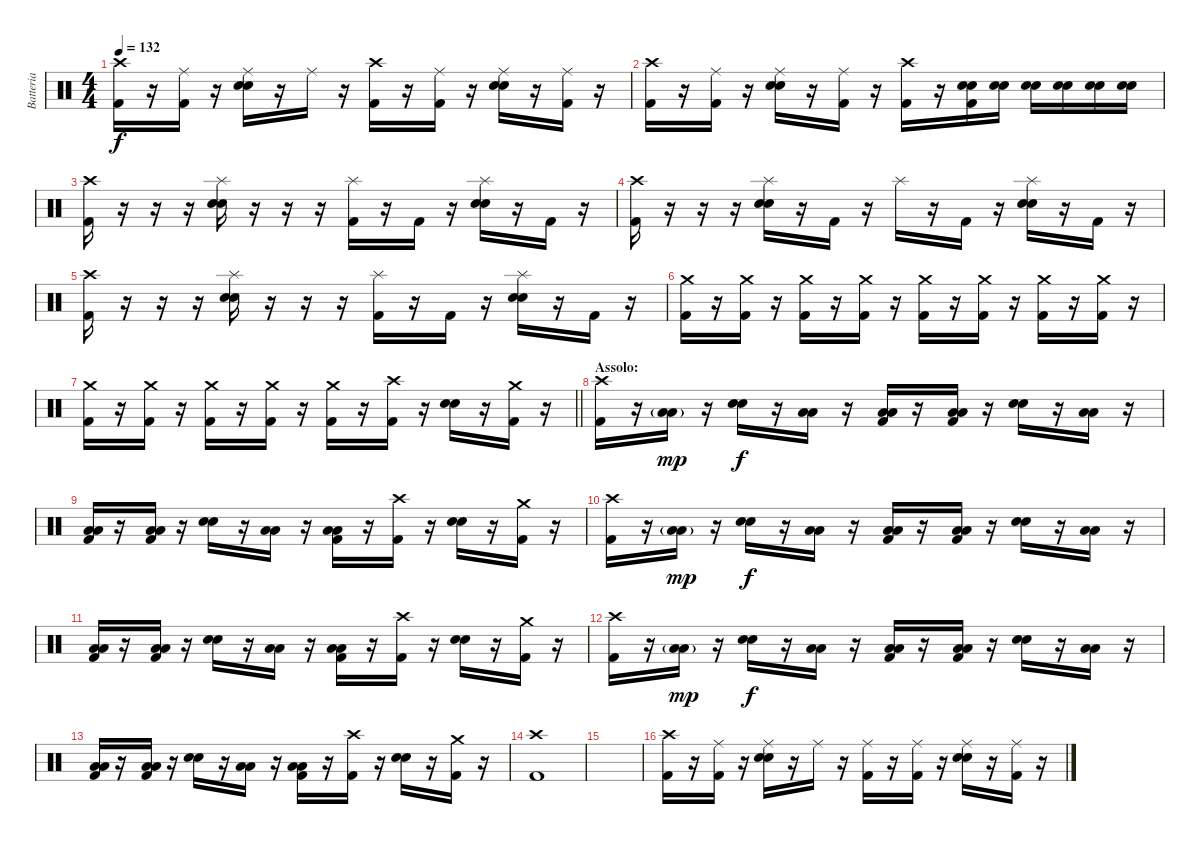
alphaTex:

\track ("Batteria" "Batteria") {instrument percussion}
\staff {score}
\articulation defaults
\ts (4 4)
\tempo 132
\clef neutral
\ks c
("Kick (hit) 2" "Crash high (hit)").16{dy f} r.16 ("Kick (hit) 2" "Ride (middle)").16 r.16 ("Snare (hit) 2" "Snare (hit) 2" "Ride (middle)").16 r.16 "Ride (middle)".16 r.16 ("Kick (hit) 2" "Crash high (hit)").16 r.16 ("Kick (hit) 2" "Ride (middle)").16 r.16 ("Snare (hit) 2" "Snare (hit) 2" "Ride (middle)").16 r.16 ("Kick (hit) 2" "Ride (middle)").16 r.16 |
("Kick (hit) 2" "Crash high (hit)").16 r.16 ("Kick (hit) 2" "Ride (middle)").16 r.16 ("Snare (hit) 2" "Snare (hit) 2" "Ride (middle)").16 r.16 ("Kick (hit) 2" "Ride (middle)").16 r.16 ("Kick (hit) 2" "Crash high (hit)").16 r.16 ("Kick (hit) 2" "Snare (hit) 2" "Snare (hit) 2").16 ("Snare (hit) 2" "Snare (hit) 2").16 ("Snare (hit) 2" "Snare (hit) 2").16 ("Snare (hit) 2" "Snare (hit) 2").16 ("Snare (hit) 2" "Snare (hit) 2").16 ("Snare (hit) 2" "Snare (hit) 2").16 |
("Kick (hit) 2" "Crash high (hit)").16 r.16 r.16 r.16 ("Snare (hit) 2" "Snare (hit) 2" "Splash (hit)").16 r.16 r.16 r.16 ("Kick (hit) 2" "Splash (hit)").16 r.16 "Kick (hit) 2".16 r.16 ("Snare (hit) 2" "Snare (hit) 2" "Splash (hit)").16 r.16 "Kick (hit) 2".16 r.16 |
("Kick (hit) 2" "Crash high (hit)").16 r.16 r.16 r.16 ("Snare (hit) 2" "Snare (hit) 2" "Splash (hit)").16 r.16 "Kick (hit) 2".16 r.16 "Splash (hit)".16 r.16 "Kick (hit) 2".16 r.16 ("Snare (hit) 2" "Snare (hit) 2" "Splash (hit)").16 r.16 "Kick (hit) 2".16 r.16 |
("Kick (hit) 2" "Crash high (hit)").16 r.16 r.16 r.16 ("Snare (hit) 2" "Snare (hit) 2" "Splash (hit)").16 r.16 r.16 r.16 ("Kick (hit) 2" "Splash (hit)").16 r.16 "Kick (hit) 2".16 r.16 ("Snare (hit) 2" "Snare (hit) 2" "Splash (hit)").16 r.16 "Kick (hit) 2".16 r.16 |
("Kick (hit) 2" "Crash medium (hit)").16 r.16 ("Kick (hit) 2" "Crash medium (hit)").16 r.16 ("Kick (hit) 2" "Crash medium (hit)").16 r.16 ("Kick (hit) 2" "Crash medium (hit)").16 r.16 ("Kick (hit) 2" "Crash medium (hit)").16 r.16 ("Kick (hit) 2" "Crash medium (hit)").16 r.16 ("Kick (hit) 2" "Crash medium (hit)").16 r.16 ("Kick (hit) 2" "Crash medium (hit)").16 r.16 |
\barLineRight lightlight
("Kick (hit) 2" "Crash medium (hit)").16 r.16 ("Kick (hit) 2" "Crash medium (hit)").16 r.16 ("Kick (hit) 2" "Crash medium (hit)").16 r.16 ("Kick (hit) 2" "Crash medium (hit)").16 r.16 ("Kick (hit) 2" "Crash medium (hit)").16 r.16 ("Kick (hit) 2" "Crash high (hit)").16 r.16 ("Snare (hit) 2" "Snare (hit) 2").16 r.16 ("Kick (hit) 2" "Crash medium (hit)").16 r.16 |
\section ("" "Assolo:")
("Kick (hit) 2" "Crash high (hit)").16 r.16 ("Low Floor Tom (hit)"{g} "Low Floor Tom (hit)"{g}).16{dy mp} r.16 ("Snare (hit) 2" "Snare (hit) 2").16{dy f} r.16 ("Low Floor Tom (hit)" "Low Floor Tom (hit)").16 r.16 ("Kick (hit) 2" "Low Floor Tom (hit)" "Low Floor Tom (hit)").16 r.16 ("Kick (hit) 2" "Low Floor Tom (hit)" "Low Floor Tom (hit)").16 r.16 ("Snare (hit) 2" "Snare (hit) 2").16 r.16 ("Low Floor Tom (hit)" "Low Floor Tom (hit)").16 r.16 |
("Kick (hit) 2" "Low Floor Tom (hit)" "Low Floor Tom (hit)").16 r.16 ("Kick (hit) 2" "Low Floor Tom (hit)" "Low Floor Tom (hit)").16 r.16 ("Snare (hit) 2" "Snare (hit) 2").16 r.16 ("Low Floor Tom (hit)" "Low Floor Tom (hit)").16 r.16 ("Kick (hit) 2" "Low Floor Tom (hit)" "Low Floor Tom (hit)").16 r.16 ("Kick (hit) 2" "Crash high (hit)").16 r.16 ("Snare (hit) 2" "Snare (hit) 2").16 r.16 ("Kick (hit) 2" "Crash medium (hit)").16 r.16 |
("Kick (hit) 2" "Crash high (hit)").16 r.16 ("Low Floor Tom (hit)"{g} "Low Floor Tom (hit)"{g}).16{dy mp} r.16 ("Snare (hit) 2" "Snare (hit) 2").16{dy f} r.16 ("Low Floor Tom (hit)" "Low Floor Tom (hit)").16 r.16 ("Kick (hit) 2" "Low Floor Tom (hit)" "Low Floor Tom (hit)").16 r.16 ("Kick (hit) 2" "Low Floor Tom (hit)" "Low Floor Tom (hit)").16 r.16 ("Snare (hit) 2" "Snare (hit) 2").16 r.16 ("Low Floor Tom (hit)" "Low Floor Tom (hit)").16 r.16 |
("Kick (hit) 2" "Low Floor Tom (hit)" "Low Floor Tom (hit)").16 r.16 ("Kick (hit) 2" "Low Floor Tom (hit)" "Low Floor Tom (hit)").16 r.16 ("Snare (hit) 2" "Snare (hit) 2").16 r.16 ("Low Floor Tom (hit)" "Low Floor Tom (hit)").16 r.16 ("Kick (hit) 2" "Low Floor Tom (hit)" "Low Floor Tom (hit)").16 r.16 ("Kick (hit) 2" "Crash high (hit)").16 r.16 ("Snare (hit) 2" "Snare (hit) 2").16 r.16 ("Kick (hit) 2" "Crash medium (hit)").16 r.16 |
("Kick (hit) 2" "Crash high (hit)").16 r.16 ("Low Floor Tom (hit)"{g} "Low Floor Tom (hit)"{g}).16{dy mp} r.16 ("Snare (hit) 2" "Snare (hit) 2").16{dy f} r.16 ("Low Floor Tom (hit)" "Low Floor Tom (hit)").16 r.16 ("Kick (hit) 2" "Low Floor Tom (hit)" "Low Floor Tom (hit)").16 r.16 ("Kick (hit) 2" "Low Floor Tom (hit)" "Low Floor Tom (hit)").16 r.16 ("Snare (hit) 2" "Snare (hit) 2").16 r.16 ("Low Floor Tom (hit)" "Low Floor Tom (hit)").16 r.16 |
("Kick (hit) 2" "Low Floor Tom (hit)" "Low Floor Tom (hit)").16 r.16 ("Kick (hit) 2" "Low Floor Tom (hit)" "Low Floor Tom (hit)").16 r.16 ("Snare (hit) 2" "Snare (hit) 2").16 r.16 ("Low Floor Tom (hit)" "Low Floor Tom (hit)").16 r.16 ("Kick (hit) 2" "Low Floor Tom (hit)" "Low Floor Tom (hit)").16 r.16 ("Kick (hit) 2" "Crash high (hit)").16 r.16 ("Snare (hit) 2" "Snare (hit) 2").16 r.16 ("Kick (hit) 2" "Crash medium (hit)").16 r.16 |
("Kick (hit) 2" "Crash high (hit)").1 |
|
("Kick (hit) 2" "Crash high (hit)").16 r.16 ("Kick (hit) 2" "Ride (middle)").16 r.16 ("Snare (hit) 2" "Snare (hit) 2" "Ride (middle)").16 r.16 "Ride (middle)".16 r.16 ("Kick (hit) 2" "Ride (middle)").16 r.16 ("Kick (hit) 2" "Ride (middle)").16 r.16 ("Snare (hit) 2" "Snare (hit) 2" "Ride (middle)").16 r.16 ("Kick (hit) 2" "Ride (middle)").16 r.16
